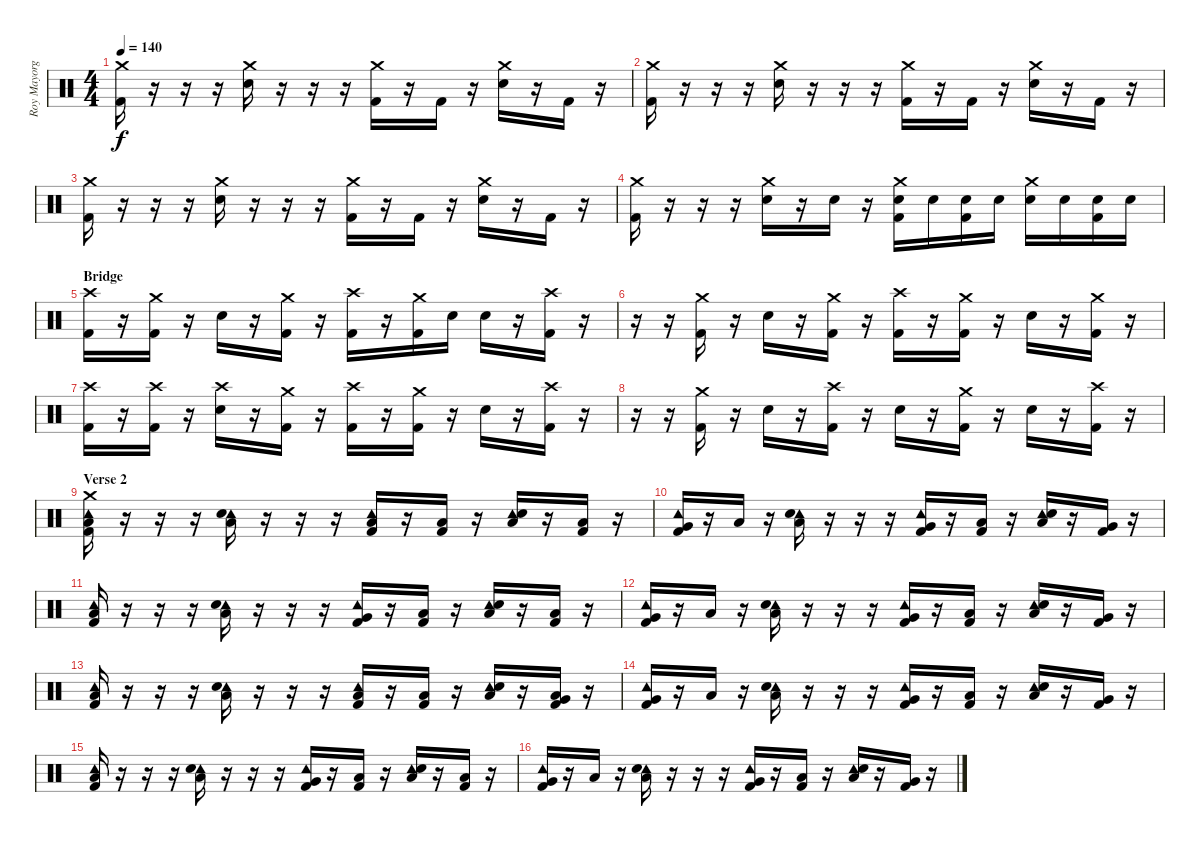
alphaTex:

\track ("Roy Mayorga" "Roy Mayorg") {instrument percussion}
\staff {score}
\articulation defaults
\ts (4 4)
\tempo 140
\clef neutral
\ks c
("Crash medium (hit)" "Kick (hit) 2").16{dy f} r.16 r.16 r.16 ("Crash medium (hit)" "Snare (hit) 2").16 r.16 r.16 r.16 ("Crash medium (hit)" "Kick (hit) 2").16 r.16 "Kick (hit) 2".16 r.16 ("Crash medium (hit)" "Snare (hit) 2").16 r.16 "Kick (hit) 2".16 r.16 |
("Crash medium (hit)" "Kick (hit) 2").16 r.16 r.16 r.16 ("Crash medium (hit)" "Snare (hit) 2").16 r.16 r.16 r.16 ("Crash medium (hit)" "Kick (hit) 2").16 r.16 "Kick (hit) 2".16 r.16 ("Crash medium (hit)" "Snare (hit) 2").16 r.16 "Kick (hit) 2".16 r.16 |
("Crash medium (hit)" "Kick (hit) 2").16 r.16 r.16 r.16 ("Crash medium (hit)" "Snare (hit) 2").16 r.16 r.16 r.16 ("Crash medium (hit)" "Kick (hit) 2").16 r.16 "Kick (hit) 2".16 r.16 ("Crash medium (hit)" "Snare (hit) 2").16 r.16 "Kick (hit) 2".16 r.16 |
("Crash medium (hit)" "Kick (hit) 2").16 r.16 r.16 r.16 ("Crash medium (hit)" "Snare (hit) 2").16 r.16 "Snare (hit) 2".16 r.16 ("Crash medium (hit)" "Snare (hit) 2" "Kick (hit) 2").16 "Snare (hit) 2".16 ("Snare (hit) 2" "Kick (hit) 2").16 "Snare (hit) 2".16 ("Crash medium (hit)" "Snare (hit) 2").16 "Snare (hit) 2".16 ("Snare (hit) 2" "Kick (hit) 2").16 "Snare (hit) 2".16 |
\section ("" "Bridge")
("Crash high (hit)" "Kick (hit) 2").16 r.16 ("Crash medium (hit)" "Kick (hit) 2").16 r.16 "Snare (hit) 2".16 r.16 ("Crash medium (hit)" "Kick (hit) 2").16 r.16 ("Crash high (hit)" "Kick (hit) 2").16 r.16 ("Crash medium (hit)" "Kick (hit) 2").16 "Snare (hit) 2".16 "Snare (hit) 2".16 r.16 ("Crash high (hit)" "Kick (hit) 2").16 r.16 |
r.16 r.16 ("Crash medium (hit)" "Kick (hit) 2").16 r.16 "Snare (hit) 2".16 r.16 ("Crash medium (hit)" "Kick (hit) 2").16 r.16 ("Crash high (hit)" "Kick (hit) 2").16 r.16 ("Crash medium (hit)" "Kick (hit) 2").16 r.16 "Snare (hit) 2".16 r.16 ("Crash medium (hit)" "Kick (hit) 2").16 r.16 |
("Crash high (hit)" "Kick (hit) 2").16 r.16 ("Crash high (hit)" "Kick (hit) 2").16 r.16 ("Crash high (hit)" "Snare (hit) 2").16 r.16 ("Crash medium (hit)" "Kick (hit) 2").16 r.16 ("Crash high (hit)" "Kick (hit) 2").16 r.16 ("Crash medium (hit)" "Kick (hit) 2").16 r.16 "Snare (hit) 2".16 r.16 ("Crash high (hit)" "Kick (hit) 2").16 r.16 |
r.16 r.16 ("Crash medium (hit)" "Kick (hit) 2").16 r.16 "Snare (hit) 2".16 r.16 ("Crash high (hit)" "Kick (hit) 2").16 r.16 "Snare (hit) 2".16 r.16 ("Crash medium (hit)" "Kick (hit) 2").16 r.16 "Snare (hit) 2".16 r.16 ("Crash high (hit)" "Kick (hit) 2").16 r.16 |
\section ("" "Verse 2")
("Crash medium (hit)" "Tambourine (hit)" "Low Tom (hit)" "Kick (hit) 2").16 r.16 r.16 r.16 ("Tambourine (hit)" "Low Tom (hit)" "Snare (hit) 2").16 r.16 r.16 r.16 ("Tambourine (hit)" "Low Tom (hit)" "Kick (hit) 2").16 r.16 ("Low Floor Tom (hit)" "Kick (hit) 2").16 r.16 ("Tambourine (hit)" "Low Tom (hit)" "Snare (hit) 2").16 r.16 ("Low Floor Tom (hit)" "Kick (hit) 2").16 r.16 |
("Tambourine (hit)" "Very Low Tom (hit)" "Kick (hit) 2").16 r.16 "Low Tom (hit)".16 r.16 ("Tambourine (hit)" "Low Tom (hit)" "Snare (hit) 2").16 r.16 r.16 r.16 ("Tambourine (hit)" "Very Low Tom (hit)" "Kick (hit) 2").16 r.16 ("Low Tom (hit)" "Kick (hit) 2").16 r.16 ("Tambourine (hit)" "Low Tom (hit)" "Snare (hit) 2").16 r.16 ("Very Low Tom (hit)" "Kick (hit) 2").16 r.16 |
("Tambourine (hit)" "Low Tom (hit)" "Kick (hit) 2").16 r.16 r.16 r.16 ("Tambourine (hit)" "Low Tom (hit)" "Snare (hit) 2").16 r.16 r.16 r.16 ("Tambourine (hit)" "Very Low Tom (hit)" "Kick (hit) 2").16 r.16 ("Low Tom (hit)" "Kick (hit) 2").16 r.16 ("Tambourine (hit)" "Low Tom (hit)" "Snare (hit) 2").16 r.16 ("Low Floor Tom (hit)" "Kick (hit) 2").16 r.16 |
("Tambourine (hit)" "Very Low Tom (hit)" "Kick (hit) 2").16 r.16 "Low Tom (hit)".16 r.16 ("Tambourine (hit)" "Low Tom (hit)" "Snare (hit) 2").16 r.16 r.16 r.16 ("Tambourine (hit)" "Very Low Tom (hit)" "Kick (hit) 2").16 r.16 ("Low Tom (hit)" "Kick (hit) 2").16 r.16 ("Tambourine (hit)" "Low Tom (hit)" "Snare (hit) 2").16 r.16 ("Very Low Tom (hit)" "Kick (hit) 2").16 r.16 |
("Tambourine (hit)" "Low Tom (hit)" "Kick (hit) 2").16 r.16 r.16 r.16 ("Tambourine (hit)" "Low Tom (hit)" "Snare (hit) 2").16 r.16 r.16 r.16 ("Tambourine (hit)" "Low Tom (hit)" "Kick (hit) 2").16 r.16 ("Low Floor Tom (hit)" "Kick (hit) 2").16 r.16 ("Tambourine (hit)" "Low Tom (hit)" "Snare (hit) 2").16 r.16 ("Low Floor Tom (hit)" "Very Low Tom (hit)" "Kick (hit) 2").16 r.16 |
("Tambourine (hit)" "Very Low Tom (hit)" "Kick (hit) 2").16 r.16 "Low Tom (hit)".16 r.16 ("Tambourine (hit)" "Low Tom (hit)" "Snare (hit) 2").16 r.16 r.16 r.16 ("Tambourine (hit)" "Very Low Tom (hit)" "Kick (hit) 2").16 r.16 ("Low Tom (hit)" "Kick (hit) 2").16 r.16 ("Tambourine (hit)" "Low Tom (hit)" "Snare (hit) 2").16 r.16 ("Very Low Tom (hit)" "Kick (hit) 2").16 r.16 |
("Tambourine (hit)" "Low Tom (hit)" "Kick (hit) 2").16 r.16 r.16 r.16 ("Tambourine (hit)" "Low Tom (hit)" "Snare (hit) 2").16 r.16 r.16 r.16 ("Tambourine (hit)" "Very Low Tom (hit)" "Kick (hit) 2").16 r.16 ("Low Tom (hit)" "Kick (hit) 2").16 r.16 ("Tambourine (hit)" "Low Tom (hit)" "Snare (hit) 2").16 r.16 ("Low Floor Tom (hit)" "Kick (hit) 2").16 r.16 |
("Tambourine (hit)" "Very Low Tom (hit)" "Kick (hit) 2").16 r.16 "Low Tom (hit)".16 r.16 ("Tambourine (hit)" "Low Tom (hit)" "Snare (hit) 2").16 r.16 r.16 r.16 ("Tambourine (hit)" "Very Low Tom (hit)" "Kick (hit) 2").16 r.16 ("Low Tom (hit)" "Kick (hit) 2").16 r.16 ("Tambourine (hit)" "Low Tom (hit)" "Snare (hit) 2").16 r.16 ("Very Low Tom (hit)" "Kick (hit) 2").16 r.16
